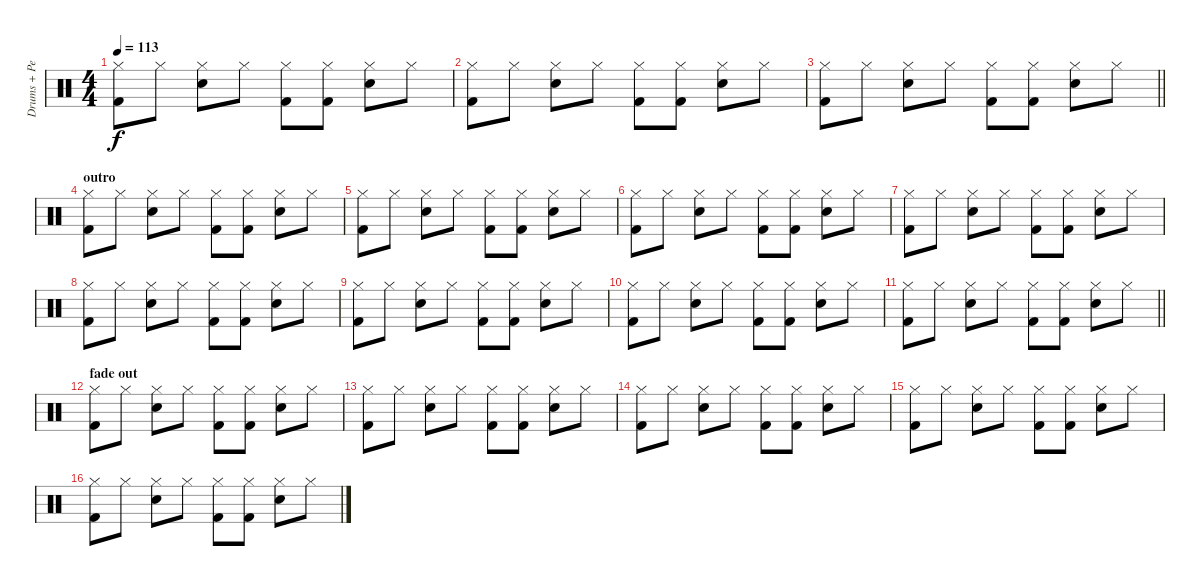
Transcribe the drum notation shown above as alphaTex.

\track ("Drums + Percussion" "Drums + Pe") {instrument percussion}
\staff {score}
\articulation defaults
\ts (4 4)
\tempo 113
\clef neutral
\ks c
("Hi-Hat (closed)" "Kick (hit) 2").8{dy f} "Hi-Hat (closed)".8 ("Hi-Hat (closed)" "Snare (hit) 2").8 "Hi-Hat (closed)".8 ("Hi-Hat (closed)" "Kick (hit) 2").8 ("Hi-Hat (closed)" "Kick (hit) 2").8 ("Hi-Hat (closed)" "Snare (hit) 2").8 "Hi-Hat (closed)".8 |
("Hi-Hat (closed)" "Kick (hit) 2").8 "Hi-Hat (closed)".8 ("Hi-Hat (closed)" "Snare (hit) 2").8 "Hi-Hat (closed)".8 ("Hi-Hat (closed)" "Kick (hit) 2").8 ("Hi-Hat (closed)" "Kick (hit) 2").8 ("Hi-Hat (closed)" "Snare (hit) 2").8 "Hi-Hat (closed)".8 |
\barLineRight lightlight
("Hi-Hat (closed)" "Kick (hit) 2").8 "Hi-Hat (closed)".8 ("Hi-Hat (closed)" "Snare (hit) 2").8 "Hi-Hat (closed)".8 ("Hi-Hat (closed)" "Kick (hit) 2").8 ("Hi-Hat (closed)" "Kick (hit) 2").8 ("Hi-Hat (closed)" "Snare (hit) 2").8 "Hi-Hat (closed)".8 |
\section ("" "outro")
("Hi-Hat (closed)" "Kick (hit) 2").8 "Hi-Hat (closed)".8 ("Hi-Hat (closed)" "Snare (hit) 2").8 "Hi-Hat (closed)".8 ("Hi-Hat (closed)" "Kick (hit) 2").8 ("Hi-Hat (closed)" "Kick (hit) 2").8 ("Hi-Hat (closed)" "Snare (hit) 2").8 "Hi-Hat (closed)".8 |
("Hi-Hat (closed)" "Kick (hit) 2").8 "Hi-Hat (closed)".8 ("Hi-Hat (closed)" "Snare (hit) 2").8 "Hi-Hat (closed)".8 ("Hi-Hat (closed)" "Kick (hit) 2").8 ("Hi-Hat (closed)" "Kick (hit) 2").8 ("Hi-Hat (closed)" "Snare (hit) 2").8 "Hi-Hat (closed)".8 |
("Hi-Hat (closed)" "Kick (hit) 2").8 "Hi-Hat (closed)".8 ("Hi-Hat (closed)" "Snare (hit) 2").8 "Hi-Hat (closed)".8 ("Hi-Hat (closed)" "Kick (hit) 2").8 ("Hi-Hat (closed)" "Kick (hit) 2").8 ("Hi-Hat (closed)" "Snare (hit) 2").8 "Hi-Hat (closed)".8 |
("Hi-Hat (closed)" "Kick (hit) 2").8 "Hi-Hat (closed)".8 ("Hi-Hat (closed)" "Snare (hit) 2").8 "Hi-Hat (closed)".8 ("Hi-Hat (closed)" "Kick (hit) 2").8 ("Hi-Hat (closed)" "Kick (hit) 2").8 ("Hi-Hat (closed)" "Snare (hit) 2").8 "Hi-Hat (closed)".8 |
("Hi-Hat (closed)" "Kick (hit) 2").8 "Hi-Hat (closed)".8 ("Hi-Hat (closed)" "Snare (hit) 2").8 "Hi-Hat (closed)".8 ("Hi-Hat (closed)" "Kick (hit) 2").8 ("Hi-Hat (closed)" "Kick (hit) 2").8 ("Hi-Hat (closed)" "Snare (hit) 2").8 "Hi-Hat (closed)".8 |
("Hi-Hat (closed)" "Kick (hit) 2").8 "Hi-Hat (closed)".8 ("Hi-Hat (closed)" "Snare (hit) 2").8 "Hi-Hat (closed)".8 ("Hi-Hat (closed)" "Kick (hit) 2").8 ("Hi-Hat (closed)" "Kick (hit) 2").8 ("Hi-Hat (closed)" "Snare (hit) 2").8 "Hi-Hat (closed)".8 |
("Hi-Hat (closed)" "Kick (hit) 2").8 "Hi-Hat (closed)".8 ("Hi-Hat (closed)" "Snare (hit) 2").8 "Hi-Hat (closed)".8 ("Hi-Hat (closed)" "Kick (hit) 2").8 ("Hi-Hat (closed)" "Kick (hit) 2").8 ("Hi-Hat (closed)" "Snare (hit) 2").8 "Hi-Hat (closed)".8 |
\barLineRight lightlight
("Hi-Hat (closed)" "Kick (hit) 2").8 "Hi-Hat (closed)".8 ("Hi-Hat (closed)" "Snare (hit) 2").8 "Hi-Hat (closed)".8 ("Hi-Hat (closed)" "Kick (hit) 2").8 ("Hi-Hat (closed)" "Kick (hit) 2").8 ("Hi-Hat (closed)" "Snare (hit) 2").8 "Hi-Hat (closed)".8 |
\section ("" "fade out")
("Hi-Hat (closed)" "Kick (hit) 2").8 "Hi-Hat (closed)".8 ("Hi-Hat (closed)" "Snare (hit) 2").8 "Hi-Hat (closed)".8 ("Hi-Hat (closed)" "Kick (hit) 2").8 ("Hi-Hat (closed)" "Kick (hit) 2").8 ("Hi-Hat (closed)" "Snare (hit) 2").8 "Hi-Hat (closed)".8 |
("Hi-Hat (closed)" "Kick (hit) 2").8 "Hi-Hat (closed)".8 ("Hi-Hat (closed)" "Snare (hit) 2").8 "Hi-Hat (closed)".8 ("Hi-Hat (closed)" "Kick (hit) 2").8 ("Hi-Hat (closed)" "Kick (hit) 2").8 ("Hi-Hat (closed)" "Snare (hit) 2").8 "Hi-Hat (closed)".8 |
("Hi-Hat (closed)" "Kick (hit) 2").8 "Hi-Hat (closed)".8 ("Hi-Hat (closed)" "Snare (hit) 2").8 "Hi-Hat (closed)".8 ("Hi-Hat (closed)" "Kick (hit) 2").8 ("Hi-Hat (closed)" "Kick (hit) 2").8 ("Hi-Hat (closed)" "Snare (hit) 2").8 "Hi-Hat (closed)".8 |
("Hi-Hat (closed)" "Kick (hit) 2").8 "Hi-Hat (closed)".8 ("Hi-Hat (closed)" "Snare (hit) 2").8 "Hi-Hat (closed)".8 ("Hi-Hat (closed)" "Kick (hit) 2").8 ("Hi-Hat (closed)" "Kick (hit) 2").8 ("Hi-Hat (closed)" "Snare (hit) 2").8 "Hi-Hat (closed)".8 |
("Hi-Hat (closed)" "Kick (hit) 2").8 "Hi-Hat (closed)".8 ("Hi-Hat (closed)" "Snare (hit) 2").8 "Hi-Hat (closed)".8 ("Hi-Hat (closed)" "Kick (hit) 2").8 ("Hi-Hat (closed)" "Kick (hit) 2").8 ("Hi-Hat (closed)" "Snare (hit) 2").8 "Hi-Hat (closed)".8
